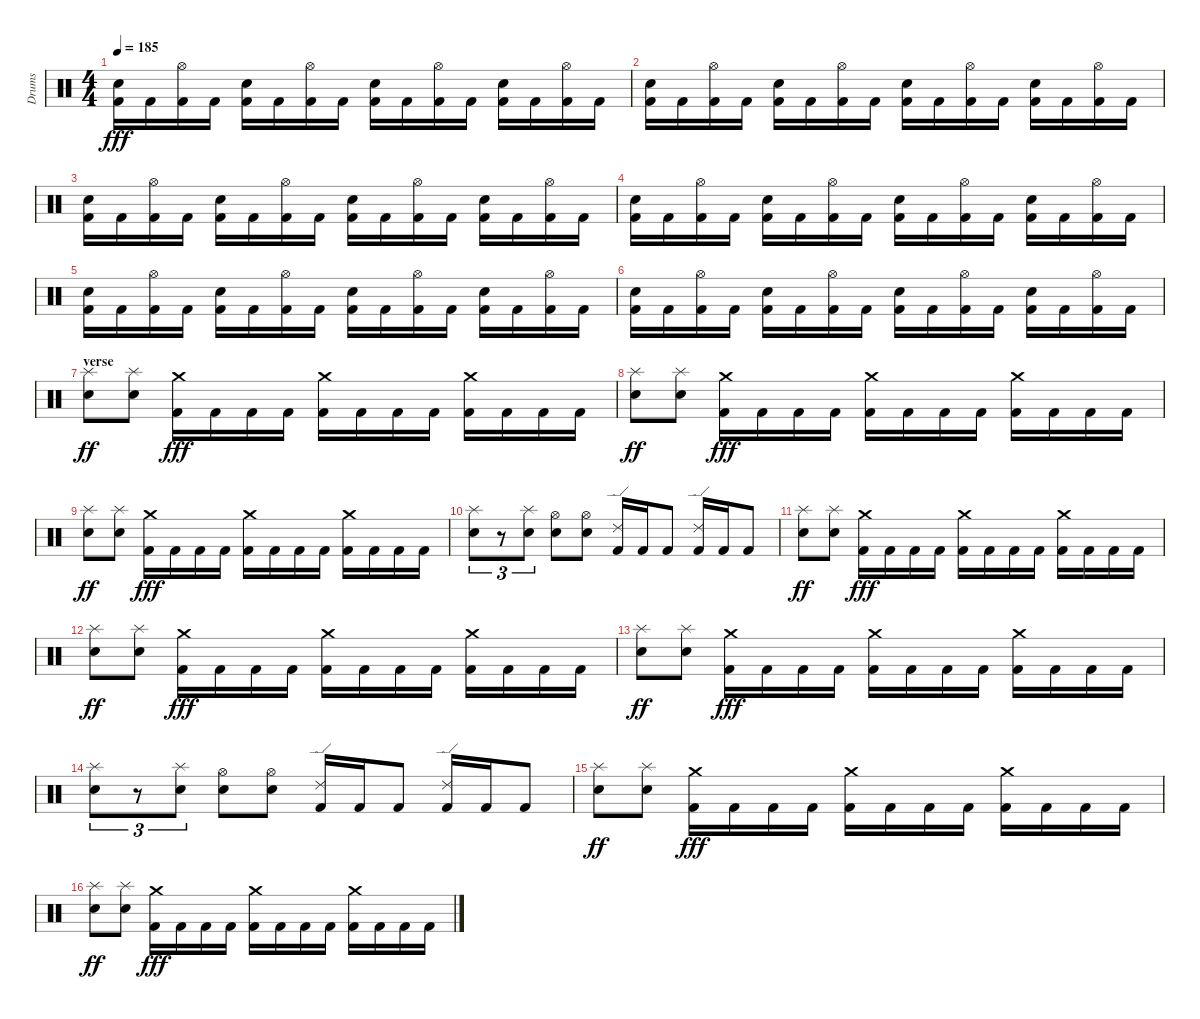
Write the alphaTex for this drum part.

\track ("Drums" "Drums") {instrument percussion}
\staff {score}
\articulation defaults
\ts (4 4)
\tempo 185
\clef neutral
\ks c
("Electric Snare (hit)" "Kick (hit) 2").16{dy fff} "Kick (hit) 2".16 ("Hi-Hat (open)" "Kick (hit) 2").16 "Kick (hit) 2".16 ("Electric Snare (hit)" "Kick (hit) 2").16 "Kick (hit) 2".16 ("Hi-Hat (open)" "Kick (hit) 2").16 "Kick (hit) 2".16 ("Electric Snare (hit)" "Kick (hit) 2").16 "Kick (hit) 2".16 ("Hi-Hat (open)" "Kick (hit) 2").16 "Kick (hit) 2".16 ("Electric Snare (hit)" "Kick (hit) 2").16 "Kick (hit) 2".16 ("Hi-Hat (open)" "Kick (hit) 2").16 "Kick (hit) 2".16 |
("Electric Snare (hit)" "Kick (hit) 2").16 "Kick (hit) 2".16 ("Hi-Hat (open)" "Kick (hit) 2").16 "Kick (hit) 2".16 ("Electric Snare (hit)" "Kick (hit) 2").16 "Kick (hit) 2".16 ("Hi-Hat (open)" "Kick (hit) 2").16 "Kick (hit) 2".16 ("Electric Snare (hit)" "Kick (hit) 2").16 "Kick (hit) 2".16 ("Hi-Hat (open)" "Kick (hit) 2").16 "Kick (hit) 2".16 ("Electric Snare (hit)" "Kick (hit) 2").16 "Kick (hit) 2".16 ("Hi-Hat (open)" "Kick (hit) 2").16 "Kick (hit) 2".16 |
("Electric Snare (hit)" "Kick (hit) 2").16 "Kick (hit) 2".16 ("Hi-Hat (open)" "Kick (hit) 2").16 "Kick (hit) 2".16 ("Electric Snare (hit)" "Kick (hit) 2").16 "Kick (hit) 2".16 ("Hi-Hat (open)" "Kick (hit) 2").16 "Kick (hit) 2".16 ("Electric Snare (hit)" "Kick (hit) 2").16 "Kick (hit) 2".16 ("Hi-Hat (open)" "Kick (hit) 2").16 "Kick (hit) 2".16 ("Electric Snare (hit)" "Kick (hit) 2").16 "Kick (hit) 2".16 ("Hi-Hat (open)" "Kick (hit) 2").16 "Kick (hit) 2".16 |
("Electric Snare (hit)" "Kick (hit) 2").16 "Kick (hit) 2".16 ("Hi-Hat (open)" "Kick (hit) 2").16 "Kick (hit) 2".16 ("Electric Snare (hit)" "Kick (hit) 2").16 "Kick (hit) 2".16 ("Hi-Hat (open)" "Kick (hit) 2").16 "Kick (hit) 2".16 ("Electric Snare (hit)" "Kick (hit) 2").16 "Kick (hit) 2".16 ("Hi-Hat (open)" "Kick (hit) 2").16 "Kick (hit) 2".16 ("Electric Snare (hit)" "Kick (hit) 2").16 "Kick (hit) 2".16 ("Hi-Hat (open)" "Kick (hit) 2").16 "Kick (hit) 2".16 |
("Electric Snare (hit)" "Kick (hit) 2").16 "Kick (hit) 2".16 ("Hi-Hat (open)" "Kick (hit) 2").16 "Kick (hit) 2".16 ("Electric Snare (hit)" "Kick (hit) 2").16 "Kick (hit) 2".16 ("Hi-Hat (open)" "Kick (hit) 2").16 "Kick (hit) 2".16 ("Electric Snare (hit)" "Kick (hit) 2").16 "Kick (hit) 2".16 ("Hi-Hat (open)" "Kick (hit) 2").16 "Kick (hit) 2".16 ("Electric Snare (hit)" "Kick (hit) 2").16 "Kick (hit) 2".16 ("Hi-Hat (open)" "Kick (hit) 2").16 "Kick (hit) 2".16 |
("Electric Snare (hit)" "Kick (hit) 2").16 "Kick (hit) 2".16 ("Hi-Hat (open)" "Kick (hit) 2").16 "Kick (hit) 2".16 ("Electric Snare (hit)" "Kick (hit) 2").16 "Kick (hit) 2".16 ("Hi-Hat (open)" "Kick (hit) 2").16 "Kick (hit) 2".16 ("Electric Snare (hit)" "Kick (hit) 2").16 "Kick (hit) 2".16 ("Hi-Hat (open)" "Kick (hit) 2").16 "Kick (hit) 2".16 ("Electric Snare (hit)" "Kick (hit) 2").16 "Kick (hit) 2".16 ("Hi-Hat (open)" "Kick (hit) 2").16 "Kick (hit) 2".16 |
\section ("" "verse")
("Splash (hit)" "Electric Snare (hit)").8{dy ff} ("Splash (hit)" "Electric Snare (hit)").8 ("Kick (hit) 2" "Crash medium (hit)").16{dy fff} "Kick (hit) 2".16 "Kick (hit) 2".16 "Kick (hit) 2".16 ("Kick (hit) 2" "Crash medium (hit)").16 "Kick (hit) 2".16 "Kick (hit) 2".16 "Kick (hit) 2".16 ("Kick (hit) 2" "Crash medium (hit)").16 "Kick (hit) 2".16 "Kick (hit) 2".16 "Kick (hit) 2".16 |
("Splash (hit)" "Electric Snare (hit)").8{dy ff} ("Splash (hit)" "Electric Snare (hit)").8 ("Kick (hit) 2" "Crash medium (hit)").16{dy fff} "Kick (hit) 2".16 "Kick (hit) 2".16 "Kick (hit) 2".16 ("Kick (hit) 2" "Crash medium (hit)").16 "Kick (hit) 2".16 "Kick (hit) 2".16 "Kick (hit) 2".16 ("Kick (hit) 2" "Crash medium (hit)").16 "Kick (hit) 2".16 "Kick (hit) 2".16 "Kick (hit) 2".16 |
("Splash (hit)" "Electric Snare (hit)").8{dy ff} ("Splash (hit)" "Electric Snare (hit)").8 ("Kick (hit) 2" "Crash medium (hit)").16{dy fff} "Kick (hit) 2".16 "Kick (hit) 2".16 "Kick (hit) 2".16 ("Kick (hit) 2" "Crash medium (hit)").16 "Kick (hit) 2".16 "Kick (hit) 2".16 "Kick (hit) 2".16 ("Kick (hit) 2" "Crash medium (hit)").16 "Kick (hit) 2".16 "Kick (hit) 2".16 "Kick (hit) 2".16 |
("Electric Snare (hit)" "Splash (hit)").8{tu (3 2)} r.8{tu (3 2)} ("Electric Snare (hit)" "Splash (hit)").8{tu (3 2)} ("Snare (hit) 2" "Hi-Hat (open)").8 ("Snare (hit) 2" "Hi-Hat (open)").8 ("Kick (hit) 2" "Ride (edge) 2").16 "Kick (hit) 2".16 "Kick (hit) 2".8 ("Kick (hit) 2" "Ride (edge) 2").16 "Kick (hit) 2".16 "Kick (hit) 2".8 |
("Splash (hit)" "Electric Snare (hit)").8{dy ff} ("Splash (hit)" "Electric Snare (hit)").8 ("Kick (hit) 2" "Crash medium (hit)").16{dy fff} "Kick (hit) 2".16 "Kick (hit) 2".16 "Kick (hit) 2".16 ("Kick (hit) 2" "Crash medium (hit)").16 "Kick (hit) 2".16 "Kick (hit) 2".16 "Kick (hit) 2".16 ("Kick (hit) 2" "Crash medium (hit)").16 "Kick (hit) 2".16 "Kick (hit) 2".16 "Kick (hit) 2".16 |
("Splash (hit)" "Electric Snare (hit)").8{dy ff} ("Splash (hit)" "Electric Snare (hit)").8 ("Kick (hit) 2" "Crash medium (hit)").16{dy fff} "Kick (hit) 2".16 "Kick (hit) 2".16 "Kick (hit) 2".16 ("Kick (hit) 2" "Crash medium (hit)").16 "Kick (hit) 2".16 "Kick (hit) 2".16 "Kick (hit) 2".16 ("Kick (hit) 2" "Crash medium (hit)").16 "Kick (hit) 2".16 "Kick (hit) 2".16 "Kick (hit) 2".16 |
("Splash (hit)" "Electric Snare (hit)").8{dy ff} ("Splash (hit)" "Electric Snare (hit)").8 ("Kick (hit) 2" "Crash medium (hit)").16{dy fff} "Kick (hit) 2".16 "Kick (hit) 2".16 "Kick (hit) 2".16 ("Kick (hit) 2" "Crash medium (hit)").16 "Kick (hit) 2".16 "Kick (hit) 2".16 "Kick (hit) 2".16 ("Kick (hit) 2" "Crash medium (hit)").16 "Kick (hit) 2".16 "Kick (hit) 2".16 "Kick (hit) 2".16 |
("Electric Snare (hit)" "Splash (hit)").8{tu (3 2)} r.8{tu (3 2)} ("Electric Snare (hit)" "Splash (hit)").8{tu (3 2)} ("Snare (hit) 2" "Hi-Hat (open)").8 ("Snare (hit) 2" "Hi-Hat (open)").8 ("Kick (hit) 2" "Ride (edge) 2").16 "Kick (hit) 2".16 "Kick (hit) 2".8 ("Kick (hit) 2" "Ride (edge) 2").16 "Kick (hit) 2".16 "Kick (hit) 2".8 |
("Splash (hit)" "Electric Snare (hit)").8{dy ff} ("Splash (hit)" "Electric Snare (hit)").8 ("Kick (hit) 2" "Crash medium (hit)").16{dy fff} "Kick (hit) 2".16 "Kick (hit) 2".16 "Kick (hit) 2".16 ("Kick (hit) 2" "Crash medium (hit)").16 "Kick (hit) 2".16 "Kick (hit) 2".16 "Kick (hit) 2".16 ("Kick (hit) 2" "Crash medium (hit)").16 "Kick (hit) 2".16 "Kick (hit) 2".16 "Kick (hit) 2".16 |
("Splash (hit)" "Electric Snare (hit)").8{dy ff} ("Splash (hit)" "Electric Snare (hit)").8 ("Kick (hit) 2" "Crash medium (hit)").16{dy fff} "Kick (hit) 2".16 "Kick (hit) 2".16 "Kick (hit) 2".16 ("Kick (hit) 2" "Crash medium (hit)").16 "Kick (hit) 2".16 "Kick (hit) 2".16 "Kick (hit) 2".16 ("Kick (hit) 2" "Crash medium (hit)").16 "Kick (hit) 2".16 "Kick (hit) 2".16 "Kick (hit) 2".16
